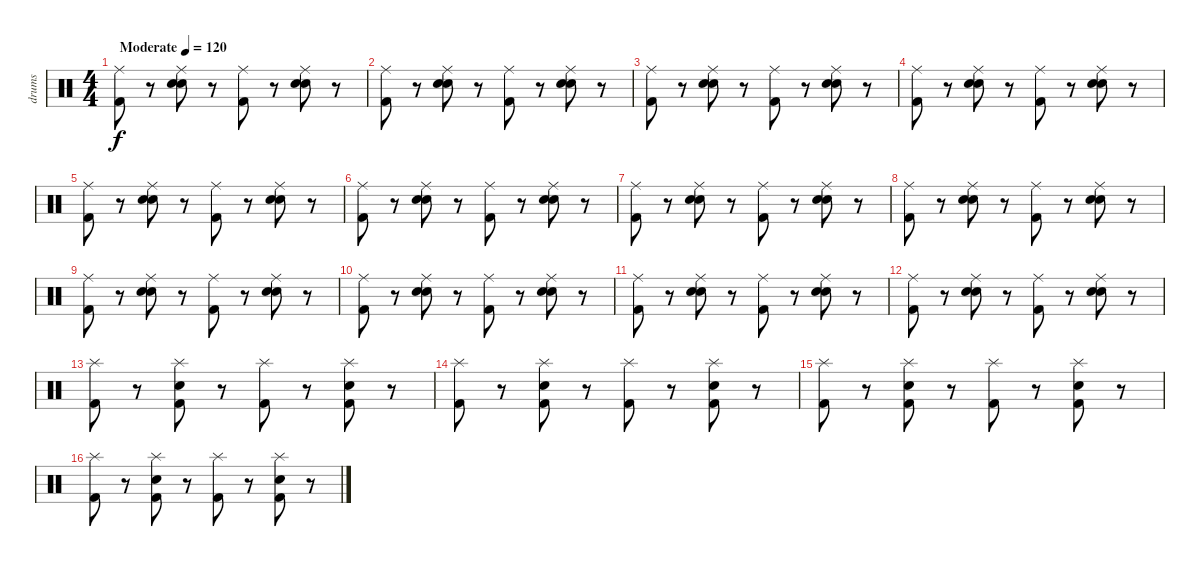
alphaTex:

\track ("drums" "drums") {instrument percussion}
\staff {score}
\articulation defaults
\ts (4 4)
\tempo (120 "Moderate")
\clef neutral
\ks c
("Ride (middle)" "Kick (hit) 2").8{dy f} r.8 ("Ride (middle)" "Snare (hit) 2" "Snare (hit) 2").8 r.8 ("Ride (middle)" "Kick (hit) 2").8 r.8 ("Ride (middle)" "Snare (hit) 2" "Snare (hit) 2").8 r.8 |
("Ride (middle)" "Kick (hit) 2").8 r.8 ("Ride (middle)" "Snare (hit) 2" "Snare (hit) 2").8 r.8 ("Ride (middle)" "Kick (hit) 2").8 r.8 ("Ride (middle)" "Snare (hit) 2" "Snare (hit) 2").8 r.8 |
("Ride (middle)" "Kick (hit) 2").8 r.8 ("Ride (middle)" "Snare (hit) 2" "Snare (hit) 2").8 r.8 ("Ride (middle)" "Kick (hit) 2").8 r.8 ("Ride (middle)" "Snare (hit) 2" "Snare (hit) 2").8 r.8 |
("Ride (middle)" "Kick (hit) 2").8 r.8 ("Ride (middle)" "Snare (hit) 2" "Snare (hit) 2").8 r.8 ("Ride (middle)" "Kick (hit) 2").8 r.8 ("Ride (middle)" "Snare (hit) 2" "Snare (hit) 2").8 r.8 |
("Ride (middle)" "Kick (hit) 2").8 r.8 ("Ride (middle)" "Snare (hit) 2" "Snare (hit) 2").8 r.8 ("Ride (middle)" "Kick (hit) 2").8 r.8 ("Ride (middle)" "Snare (hit) 2" "Snare (hit) 2").8 r.8 |
("Ride (middle)" "Kick (hit) 2").8 r.8 ("Ride (middle)" "Snare (hit) 2" "Snare (hit) 2").8 r.8 ("Ride (middle)" "Kick (hit) 2").8 r.8 ("Ride (middle)" "Snare (hit) 2" "Snare (hit) 2").8 r.8 |
("Ride (middle)" "Kick (hit) 2").8 r.8 ("Ride (middle)" "Snare (hit) 2" "Snare (hit) 2").8 r.8 ("Ride (middle)" "Kick (hit) 2").8 r.8 ("Ride (middle)" "Snare (hit) 2" "Snare (hit) 2").8 r.8 |
("Ride (middle)" "Kick (hit) 2").8 r.8 ("Ride (middle)" "Snare (hit) 2" "Snare (hit) 2").8 r.8 ("Ride (middle)" "Kick (hit) 2").8 r.8 ("Ride (middle)" "Snare (hit) 2" "Snare (hit) 2").8 r.8 |
("Ride (middle)" "Kick (hit) 2").8 r.8 ("Ride (middle)" "Snare (hit) 2" "Snare (hit) 2").8 r.8 ("Ride (middle)" "Kick (hit) 2").8 r.8 ("Ride (middle)" "Snare (hit) 2" "Snare (hit) 2").8 r.8 |
("Ride (middle)" "Kick (hit) 2").8 r.8 ("Ride (middle)" "Snare (hit) 2" "Snare (hit) 2").8 r.8 ("Ride (middle)" "Kick (hit) 2").8 r.8 ("Ride (middle)" "Snare (hit) 2" "Snare (hit) 2").8 r.8 |
("Ride (middle)" "Kick (hit) 2").8 r.8 ("Ride (middle)" "Snare (hit) 2" "Snare (hit) 2").8 r.8 ("Ride (middle)" "Kick (hit) 2").8 r.8 ("Ride (middle)" "Snare (hit) 2" "Snare (hit) 2").8 r.8 |
("Ride (middle)" "Kick (hit) 2").8 r.8 ("Ride (middle)" "Snare (hit) 2" "Snare (hit) 2").8 r.8 ("Ride (middle)" "Kick (hit) 2").8 r.8 ("Ride (middle)" "Snare (hit) 2" "Snare (hit) 2").8 r.8 |
("Splash (hit)" "Kick (hit) 2").8 r.8 ("Splash (hit)" "Snare (hit) 2" "Kick (hit) 2").8 r.8 ("Splash (hit)" "Kick (hit) 2").8 r.8 ("Splash (hit)" "Snare (hit) 2" "Kick (hit) 2").8 r.8 |
("Splash (hit)" "Kick (hit) 2").8 r.8 ("Splash (hit)" "Snare (hit) 2" "Kick (hit) 2").8 r.8 ("Splash (hit)" "Kick (hit) 2").8 r.8 ("Splash (hit)" "Snare (hit) 2" "Kick (hit) 2").8 r.8 |
("Splash (hit)" "Kick (hit) 2").8 r.8 ("Splash (hit)" "Snare (hit) 2" "Kick (hit) 2").8 r.8 ("Splash (hit)" "Kick (hit) 2").8 r.8 ("Splash (hit)" "Snare (hit) 2" "Kick (hit) 2").8 r.8 |
("Splash (hit)" "Kick (hit) 2").8 r.8 ("Splash (hit)" "Snare (hit) 2" "Kick (hit) 2").8 r.8 ("Splash (hit)" "Kick (hit) 2").8 r.8 ("Splash (hit)" "Snare (hit) 2" "Kick (hit) 2").8 r.8
